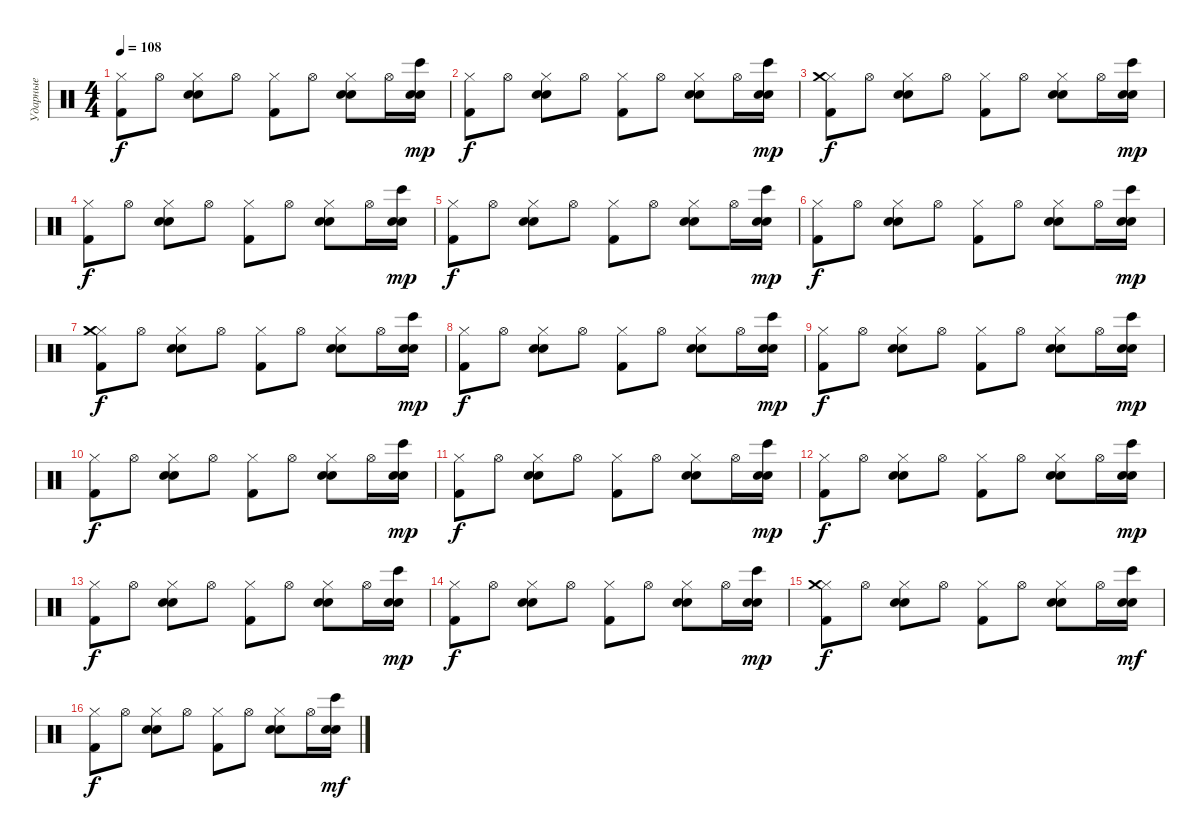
\track ("Ударные" "Ударные") {instrument percussion}
\staff {score}
\articulation defaults
\ts (4 4)
\tempo 108
\clef neutral
\ks c
("Hi-Hat (closed)" "Kick (hit) 2").8{dy f} "Hi-Hat (open)".8 ("Hi-Hat (closed)" "Electric Snare (hit)" "Hand Clap (hit)").8 "Hi-Hat (open)".8 ("Hi-Hat (closed)" "Kick (hit) 2").8 "Hi-Hat (open)".8 ("Hi-Hat (closed)" "Electric Snare (hit)" "Hand Clap (hit)").8 "Hi-Hat (open)".16 ("Bongo High (hit)" "Electric Snare (hit)" "Hand Clap (hit)").16{dy mp} |
("Hi-Hat (closed)" "Kick (hit) 2").8{dy f} "Hi-Hat (open)".8 ("Hi-Hat (closed)" "Electric Snare (hit)" "Hand Clap (hit)").8 "Hi-Hat (open)".8 ("Hi-Hat (closed)" "Kick (hit) 2").8 "Hi-Hat (open)".8 ("Hi-Hat (closed)" "Electric Snare (hit)" "Hand Clap (hit)").8 "Hi-Hat (open)".16 ("Bongo High (hit)" "Electric Snare (hit)" "Hand Clap (hit)").16{dy mp} |
("Hi-Hat (closed)" "Kick (hit) 2" "Crash medium (hit)").8{dy f} "Hi-Hat (open)".8 ("Hi-Hat (closed)" "Electric Snare (hit)" "Hand Clap (hit)").8 "Hi-Hat (open)".8 ("Hi-Hat (closed)" "Kick (hit) 2").8 "Hi-Hat (open)".8 ("Hi-Hat (closed)" "Electric Snare (hit)" "Hand Clap (hit)").8 "Hi-Hat (open)".16 ("Bongo High (hit)" "Electric Snare (hit)" "Hand Clap (hit)").16{dy mp} |
("Hi-Hat (closed)" "Kick (hit) 2").8{dy f} "Hi-Hat (open)".8 ("Hi-Hat (closed)" "Electric Snare (hit)" "Hand Clap (hit)").8 "Hi-Hat (open)".8 ("Hi-Hat (closed)" "Kick (hit) 2").8 "Hi-Hat (open)".8 ("Hi-Hat (closed)" "Electric Snare (hit)" "Hand Clap (hit)").8 "Hi-Hat (open)".16 ("Bongo High (hit)" "Electric Snare (hit)" "Hand Clap (hit)").16{dy mp} |
("Hi-Hat (closed)" "Kick (hit) 2").8{dy f} "Hi-Hat (open)".8 ("Hi-Hat (closed)" "Electric Snare (hit)" "Hand Clap (hit)").8 "Hi-Hat (open)".8 ("Hi-Hat (closed)" "Kick (hit) 2").8 "Hi-Hat (open)".8 ("Hi-Hat (closed)" "Electric Snare (hit)" "Hand Clap (hit)").8 "Hi-Hat (open)".16 ("Bongo High (hit)" "Electric Snare (hit)" "Hand Clap (hit)").16{dy mp} |
("Hi-Hat (closed)" "Kick (hit) 2").8{dy f} "Hi-Hat (open)".8 ("Hi-Hat (closed)" "Electric Snare (hit)" "Hand Clap (hit)").8 "Hi-Hat (open)".8 ("Hi-Hat (closed)" "Kick (hit) 2").8 "Hi-Hat (open)".8 ("Hi-Hat (closed)" "Electric Snare (hit)" "Hand Clap (hit)").8 "Hi-Hat (open)".16 ("Bongo High (hit)" "Electric Snare (hit)" "Hand Clap (hit)").16{dy mp} |
("Hi-Hat (closed)" "Kick (hit) 2" "Crash medium (hit)").8{dy f} "Hi-Hat (open)".8 ("Hi-Hat (closed)" "Electric Snare (hit)" "Hand Clap (hit)").8 "Hi-Hat (open)".8 ("Hi-Hat (closed)" "Kick (hit) 2").8 "Hi-Hat (open)".8 ("Hi-Hat (closed)" "Electric Snare (hit)" "Hand Clap (hit)").8 "Hi-Hat (open)".16 ("Bongo High (hit)" "Electric Snare (hit)" "Hand Clap (hit)").16{dy mp} |
("Hi-Hat (closed)" "Kick (hit) 2").8{dy f} "Hi-Hat (open)".8 ("Hi-Hat (closed)" "Electric Snare (hit)" "Hand Clap (hit)").8 "Hi-Hat (open)".8 ("Hi-Hat (closed)" "Kick (hit) 2").8 "Hi-Hat (open)".8 ("Hi-Hat (closed)" "Electric Snare (hit)" "Hand Clap (hit)").8 "Hi-Hat (open)".16 ("Bongo High (hit)" "Electric Snare (hit)" "Hand Clap (hit)").16{dy mp} |
("Hi-Hat (closed)" "Kick (hit) 2").8{dy f} "Hi-Hat (open)".8 ("Hi-Hat (closed)" "Electric Snare (hit)" "Hand Clap (hit)").8 "Hi-Hat (open)".8 ("Hi-Hat (closed)" "Kick (hit) 2").8 "Hi-Hat (open)".8 ("Hi-Hat (closed)" "Electric Snare (hit)" "Hand Clap (hit)").8 "Hi-Hat (open)".16 ("Bongo High (hit)" "Electric Snare (hit)" "Hand Clap (hit)").16{dy mp} |
("Hi-Hat (closed)" "Kick (hit) 2").8{dy f} "Hi-Hat (open)".8 ("Hi-Hat (closed)" "Electric Snare (hit)" "Hand Clap (hit)").8 "Hi-Hat (open)".8 ("Hi-Hat (closed)" "Kick (hit) 2").8 "Hi-Hat (open)".8 ("Hi-Hat (closed)" "Electric Snare (hit)" "Hand Clap (hit)").8 "Hi-Hat (open)".16 ("Bongo High (hit)" "Electric Snare (hit)" "Hand Clap (hit)").16{dy mp} |
("Hi-Hat (closed)" "Kick (hit) 2").8{dy f} "Hi-Hat (open)".8 ("Hi-Hat (closed)" "Electric Snare (hit)" "Hand Clap (hit)").8 "Hi-Hat (open)".8 ("Hi-Hat (closed)" "Kick (hit) 2").8 "Hi-Hat (open)".8 ("Hi-Hat (closed)" "Electric Snare (hit)" "Hand Clap (hit)").8 "Hi-Hat (open)".16 ("Bongo High (hit)" "Electric Snare (hit)" "Hand Clap (hit)").16{dy mp} |
("Hi-Hat (closed)" "Kick (hit) 2").8{dy f} "Hi-Hat (open)".8 ("Hi-Hat (closed)" "Electric Snare (hit)" "Hand Clap (hit)").8 "Hi-Hat (open)".8 ("Hi-Hat (closed)" "Kick (hit) 2").8 "Hi-Hat (open)".8 ("Hi-Hat (closed)" "Electric Snare (hit)" "Hand Clap (hit)").8 "Hi-Hat (open)".16 ("Bongo High (hit)" "Electric Snare (hit)" "Hand Clap (hit)").16{dy mp} |
("Hi-Hat (closed)" "Kick (hit) 2").8{dy f} "Hi-Hat (open)".8 ("Hi-Hat (closed)" "Electric Snare (hit)" "Hand Clap (hit)").8 "Hi-Hat (open)".8 ("Hi-Hat (closed)" "Kick (hit) 2").8 "Hi-Hat (open)".8 ("Hi-Hat (closed)" "Electric Snare (hit)" "Hand Clap (hit)").8 "Hi-Hat (open)".16 ("Bongo High (hit)" "Electric Snare (hit)" "Hand Clap (hit)").16{dy mp} |
("Hi-Hat (closed)" "Kick (hit) 2").8{dy f} "Hi-Hat (open)".8 ("Hi-Hat (closed)" "Electric Snare (hit)" "Hand Clap (hit)").8 "Hi-Hat (open)".8 ("Hi-Hat (closed)" "Kick (hit) 2").8 "Hi-Hat (open)".8 ("Hi-Hat (closed)" "Electric Snare (hit)" "Hand Clap (hit)").8 "Hi-Hat (open)".16 ("Bongo High (hit)" "Electric Snare (hit)" "Hand Clap (hit)").16{dy mp} |
("Hi-Hat (closed)" "Kick (hit) 2" "Crash medium (hit)").8{dy f} "Hi-Hat (open)".8 ("Hi-Hat (closed)" "Electric Snare (hit)" "Hand Clap (hit)").8 "Hi-Hat (open)".8 ("Hi-Hat (closed)" "Kick (hit) 2").8 "Hi-Hat (open)".8 ("Hi-Hat (closed)" "Electric Snare (hit)" "Hand Clap (hit)").8 "Hi-Hat (open)".16 ("Bongo High (hit)" "Electric Snare (hit)" "Hand Clap (hit)").16{dy mf} |
("Hi-Hat (closed)" "Kick (hit) 2").8{dy f} "Hi-Hat (open)".8 ("Hi-Hat (closed)" "Electric Snare (hit)" "Hand Clap (hit)").8 "Hi-Hat (open)".8 ("Hi-Hat (closed)" "Kick (hit) 2").8 "Hi-Hat (open)".8 ("Hi-Hat (closed)" "Electric Snare (hit)" "Hand Clap (hit)").8 "Hi-Hat (open)".16 ("Bongo High (hit)" "Electric Snare (hit)" "Hand Clap (hit)").16{dy mf}
